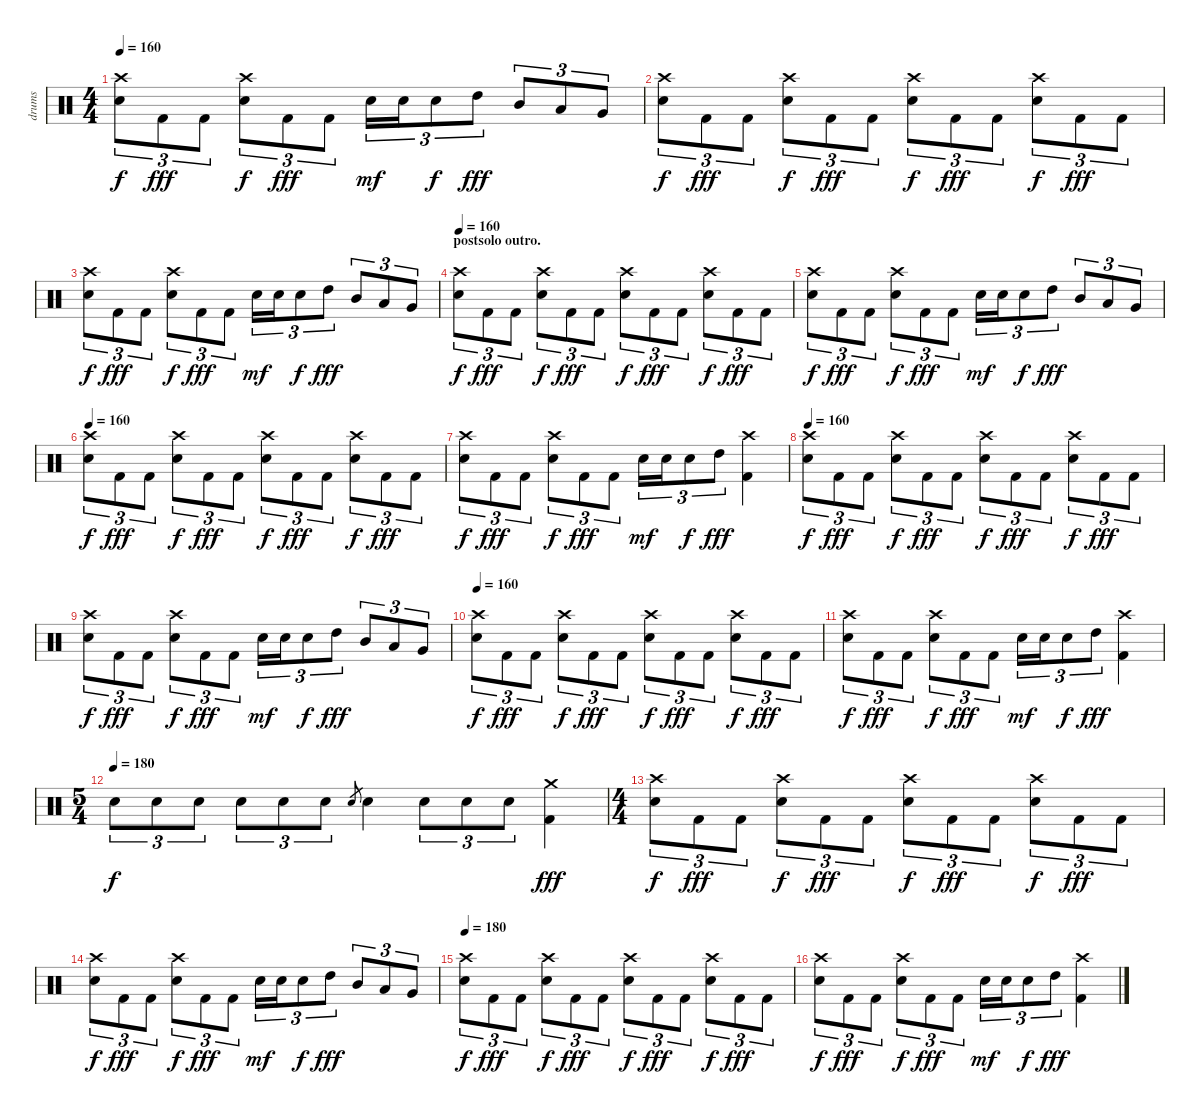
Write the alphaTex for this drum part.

\track ("drums" "drums") {instrument percussion}
\staff {score}
\articulation defaults
\ts (4 4)
\tempo 160
\clef neutral
\ks c
("Crash high (hit)" "Snare (hit) 2").8{tu (3 2) dy f} "Kick (hit) 2".8{tu (3 2) dy fff} "Kick (hit) 2".8{tu (3 2)} ("Crash high (hit)" "Snare (hit) 2").8{tu (3 2) dy f} "Kick (hit) 2".8{tu (3 2) dy fff} "Kick (hit) 2".8{tu (3 2)} "Snare (hit) 2".16{tu (3 2) dy mf} "Snare (hit) 2".16{tu (3 2)} "Snare (hit) 2".8{tu (3 2) dy f} "High Tom (hit)".8{tu (3 2) dy fff} "Mid Tom (hit)".8{tu (3 2)} "Low Tom (hit)".8{tu (3 2)} "Very Low Tom (hit)".8{tu (3 2)} |
("Crash high (hit)" "Snare (hit) 2").8{tu (3 2) dy f} "Kick (hit) 2".8{tu (3 2) dy fff} "Kick (hit) 2".8{tu (3 2)} ("Crash high (hit)" "Snare (hit) 2").8{tu (3 2) dy f} "Kick (hit) 2".8{tu (3 2) dy fff} "Kick (hit) 2".8{tu (3 2)} ("Crash high (hit)" "Snare (hit) 2").8{tu (3 2) dy f} "Kick (hit) 2".8{tu (3 2) dy fff} "Kick (hit) 2".8{tu (3 2)} ("Crash high (hit)" "Snare (hit) 2").8{tu (3 2) dy f} "Kick (hit) 2".8{tu (3 2) dy fff} "Kick (hit) 2".8{tu (3 2)} |
("Crash high (hit)" "Snare (hit) 2").8{tu (3 2) dy f} "Kick (hit) 2".8{tu (3 2) dy fff} "Kick (hit) 2".8{tu (3 2)} ("Crash high (hit)" "Snare (hit) 2").8{tu (3 2) dy f} "Kick (hit) 2".8{tu (3 2) dy fff} "Kick (hit) 2".8{tu (3 2)} "Snare (hit) 2".16{tu (3 2) dy mf} "Snare (hit) 2".16{tu (3 2)} "Snare (hit) 2".8{tu (3 2) dy f} "High Tom (hit)".8{tu (3 2) dy fff} "Mid Tom (hit)".8{tu (3 2)} "Low Tom (hit)".8{tu (3 2)} "Very Low Tom (hit)".8{tu (3 2)} |
\section ("" "postsolo outro.")
\tempo 160
("Crash high (hit)" "Snare (hit) 2").8{tu (3 2) dy f} "Kick (hit) 2".8{tu (3 2) dy fff} "Kick (hit) 2".8{tu (3 2)} ("Crash high (hit)" "Snare (hit) 2").8{tu (3 2) dy f} "Kick (hit) 2".8{tu (3 2) dy fff} "Kick (hit) 2".8{tu (3 2)} ("Crash high (hit)" "Snare (hit) 2").8{tu (3 2) dy f} "Kick (hit) 2".8{tu (3 2) dy fff} "Kick (hit) 2".8{tu (3 2)} ("Crash high (hit)" "Snare (hit) 2").8{tu (3 2) dy f} "Kick (hit) 2".8{tu (3 2) dy fff} "Kick (hit) 2".8{tu (3 2)} |
("Crash high (hit)" "Snare (hit) 2").8{tu (3 2) dy f} "Kick (hit) 2".8{tu (3 2) dy fff} "Kick (hit) 2".8{tu (3 2)} ("Crash high (hit)" "Snare (hit) 2").8{tu (3 2) dy f} "Kick (hit) 2".8{tu (3 2) dy fff} "Kick (hit) 2".8{tu (3 2)} "Snare (hit) 2".16{tu (3 2) dy mf} "Snare (hit) 2".16{tu (3 2)} "Snare (hit) 2".8{tu (3 2) dy f} "High Tom (hit)".8{tu (3 2) dy fff} "Mid Tom (hit)".8{tu (3 2)} "Low Tom (hit)".8{tu (3 2)} "Very Low Tom (hit)".8{tu (3 2)} |
\tempo 160
("Crash high (hit)" "Snare (hit) 2").8{tu (3 2) dy f} "Kick (hit) 2".8{tu (3 2) dy fff} "Kick (hit) 2".8{tu (3 2)} ("Crash high (hit)" "Snare (hit) 2").8{tu (3 2) dy f} "Kick (hit) 2".8{tu (3 2) dy fff} "Kick (hit) 2".8{tu (3 2)} ("Crash high (hit)" "Snare (hit) 2").8{tu (3 2) dy f} "Kick (hit) 2".8{tu (3 2) dy fff} "Kick (hit) 2".8{tu (3 2)} ("Crash high (hit)" "Snare (hit) 2").8{tu (3 2) dy f} "Kick (hit) 2".8{tu (3 2) dy fff} "Kick (hit) 2".8{tu (3 2)} |
("Crash high (hit)" "Snare (hit) 2").8{tu (3 2) dy f} "Kick (hit) 2".8{tu (3 2) dy fff} "Kick (hit) 2".8{tu (3 2)} ("Crash high (hit)" "Snare (hit) 2").8{tu (3 2) dy f} "Kick (hit) 2".8{tu (3 2) dy fff} "Kick (hit) 2".8{tu (3 2)} "Snare (hit) 2".16{tu (3 2) dy mf} "Snare (hit) 2".16{tu (3 2)} "Snare (hit) 2".8{tu (3 2) dy f} "High Tom (hit)".8{tu (3 2) dy fff} ("Crash high (hit)" "Kick (hit) 2").4 |
\tempo 160
("Crash high (hit)" "Snare (hit) 2").8{tu (3 2) dy f} "Kick (hit) 2".8{tu (3 2) dy fff} "Kick (hit) 2".8{tu (3 2)} ("Crash high (hit)" "Snare (hit) 2").8{tu (3 2) dy f} "Kick (hit) 2".8{tu (3 2) dy fff} "Kick (hit) 2".8{tu (3 2)} ("Crash high (hit)" "Snare (hit) 2").8{tu (3 2) dy f} "Kick (hit) 2".8{tu (3 2) dy fff} "Kick (hit) 2".8{tu (3 2)} ("Crash high (hit)" "Snare (hit) 2").8{tu (3 2) dy f} "Kick (hit) 2".8{tu (3 2) dy fff} "Kick (hit) 2".8{tu (3 2)} |
("Crash high (hit)" "Snare (hit) 2").8{tu (3 2) dy f} "Kick (hit) 2".8{tu (3 2) dy fff} "Kick (hit) 2".8{tu (3 2)} ("Crash high (hit)" "Snare (hit) 2").8{tu (3 2) dy f} "Kick (hit) 2".8{tu (3 2) dy fff} "Kick (hit) 2".8{tu (3 2)} "Snare (hit) 2".16{tu (3 2) dy mf} "Snare (hit) 2".16{tu (3 2)} "Snare (hit) 2".8{tu (3 2) dy f} "High Tom (hit)".8{tu (3 2) dy fff} "Mid Tom (hit)".8{tu (3 2)} "Low Tom (hit)".8{tu (3 2)} "Very Low Tom (hit)".8{tu (3 2)} |
\tempo 160
("Crash high (hit)" "Snare (hit) 2").8{tu (3 2) dy f} "Kick (hit) 2".8{tu (3 2) dy fff} "Kick (hit) 2".8{tu (3 2)} ("Crash high (hit)" "Snare (hit) 2").8{tu (3 2) dy f} "Kick (hit) 2".8{tu (3 2) dy fff} "Kick (hit) 2".8{tu (3 2)} ("Crash high (hit)" "Snare (hit) 2").8{tu (3 2) dy f} "Kick (hit) 2".8{tu (3 2) dy fff} "Kick (hit) 2".8{tu (3 2)} ("Crash high (hit)" "Snare (hit) 2").8{tu (3 2) dy f} "Kick (hit) 2".8{tu (3 2) dy fff} "Kick (hit) 2".8{tu (3 2)} |
("Crash high (hit)" "Snare (hit) 2").8{tu (3 2) dy f} "Kick (hit) 2".8{tu (3 2) dy fff} "Kick (hit) 2".8{tu (3 2)} ("Crash high (hit)" "Snare (hit) 2").8{tu (3 2) dy f} "Kick (hit) 2".8{tu (3 2) dy fff} "Kick (hit) 2".8{tu (3 2)} "Snare (hit) 2".16{tu (3 2) dy mf} "Snare (hit) 2".16{tu (3 2)} "Snare (hit) 2".8{tu (3 2) dy f} "High Tom (hit)".8{tu (3 2) dy fff} ("Crash high (hit)" "Kick (hit) 2").4 |
\ts (5 4)
\tempo (180)
"Snare (hit) 2".8{tu (3 2) dy f} "Snare (hit) 2".8{tu (3 2)} "Snare (hit) 2".8{tu (3 2)} "Snare (hit) 2".8{tu (3 2)} "Snare (hit) 2".8{tu (3 2)} "Snare (hit) 2".8{tu (3 2)} "Snare (hit) 2".8{gr} "Snare (hit) 2".4 "Snare (hit) 2".8{tu (3 2)} "Snare (hit) 2".8{tu (3 2)} "Snare (hit) 2".8{tu (3 2)} ("Crash medium (hit)" "Kick (hit) 2").4{dy fff} |
\ts (4 4)
("Crash high (hit)" "Snare (hit) 2").8{tu (3 2) dy f} "Kick (hit) 2".8{tu (3 2) dy fff} "Kick (hit) 2".8{tu (3 2)} ("Crash high (hit)" "Snare (hit) 2").8{tu (3 2) dy f} "Kick (hit) 2".8{tu (3 2) dy fff} "Kick (hit) 2".8{tu (3 2)} ("Crash high (hit)" "Snare (hit) 2").8{tu (3 2) dy f} "Kick (hit) 2".8{tu (3 2) dy fff} "Kick (hit) 2".8{tu (3 2)} ("Crash high (hit)" "Snare (hit) 2").8{tu (3 2) dy f} "Kick (hit) 2".8{tu (3 2) dy fff} "Kick (hit) 2".8{tu (3 2)} |
("Crash high (hit)" "Snare (hit) 2").8{tu (3 2) dy f} "Kick (hit) 2".8{tu (3 2) dy fff} "Kick (hit) 2".8{tu (3 2)} ("Crash high (hit)" "Snare (hit) 2").8{tu (3 2) dy f} "Kick (hit) 2".8{tu (3 2) dy fff} "Kick (hit) 2".8{tu (3 2)} "Snare (hit) 2".16{tu (3 2) dy mf} "Snare (hit) 2".16{tu (3 2)} "Snare (hit) 2".8{tu (3 2) dy f} "High Tom (hit)".8{tu (3 2) dy fff} "Mid Tom (hit)".8{tu (3 2)} "Low Tom (hit)".8{tu (3 2)} "Very Low Tom (hit)".8{tu (3 2)} |
\tempo 180
("Crash high (hit)" "Snare (hit) 2").8{tu (3 2) dy f} "Kick (hit) 2".8{tu (3 2) dy fff} "Kick (hit) 2".8{tu (3 2)} ("Crash high (hit)" "Snare (hit) 2").8{tu (3 2) dy f} "Kick (hit) 2".8{tu (3 2) dy fff} "Kick (hit) 2".8{tu (3 2)} ("Crash high (hit)" "Snare (hit) 2").8{tu (3 2) dy f} "Kick (hit) 2".8{tu (3 2) dy fff} "Kick (hit) 2".8{tu (3 2)} ("Crash high (hit)" "Snare (hit) 2").8{tu (3 2) dy f} "Kick (hit) 2".8{tu (3 2) dy fff} "Kick (hit) 2".8{tu (3 2)} |
("Crash high (hit)" "Snare (hit) 2").8{tu (3 2) dy f} "Kick (hit) 2".8{tu (3 2) dy fff} "Kick (hit) 2".8{tu (3 2)} ("Crash high (hit)" "Snare (hit) 2").8{tu (3 2) dy f} "Kick (hit) 2".8{tu (3 2) dy fff} "Kick (hit) 2".8{tu (3 2)} "Snare (hit) 2".16{tu (3 2) dy mf} "Snare (hit) 2".16{tu (3 2)} "Snare (hit) 2".8{tu (3 2) dy f} "High Tom (hit)".8{tu (3 2) dy fff} ("Crash high (hit)" "Kick (hit) 2").4
